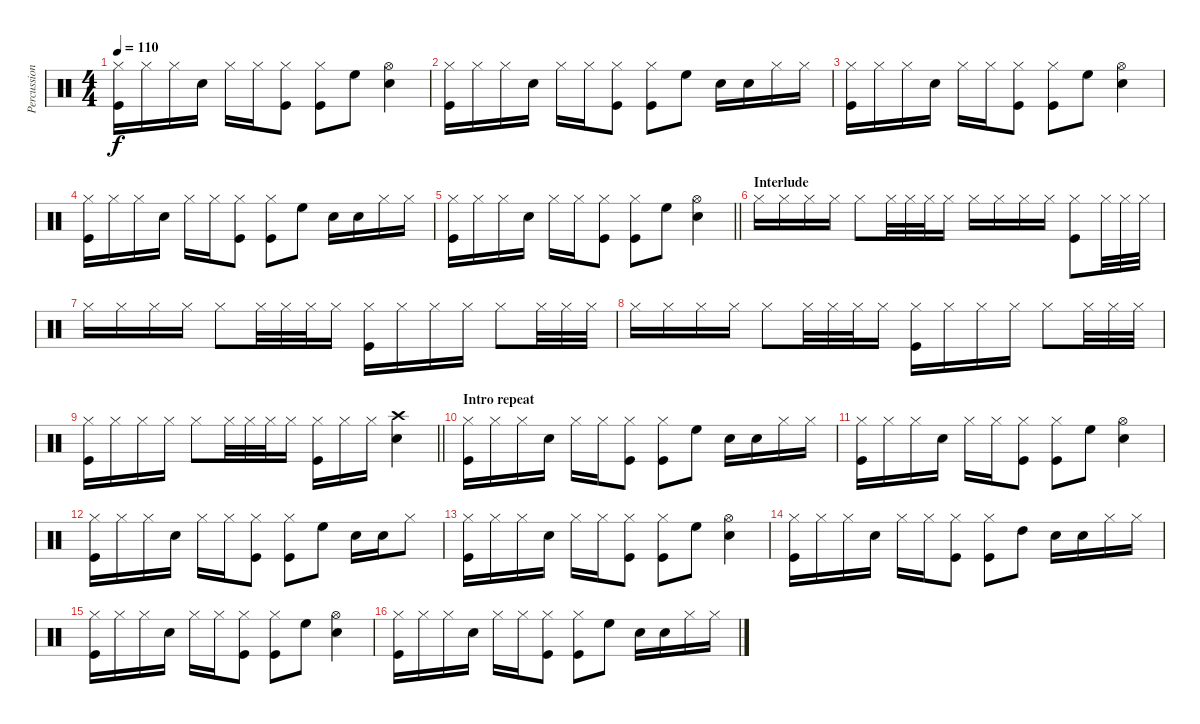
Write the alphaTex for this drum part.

\track ("Percussion" "Percussion") {instrument percussion}
\staff {score}
\articulation defaults
\ts (4 4)
\tempo 110
\clef neutral
\ks c
("Kick (hit)" "Hi-Hat (closed)").16{dy f} "Hi-Hat (closed)".16 "Hi-Hat (closed)".16 "Snare (hit) 2".16 "Hi-Hat (closed)".16 "Hi-Hat (closed)".16 ("Kick (hit)" "Hi-Hat (closed)").8 ("Kick (hit)" "Hi-Hat (closed)").8 "High Floor Tom (hit)".8 ("Hi-Hat (open)" "Snare (hit) 2").4 |
("Kick (hit)" "Hi-Hat (closed)").16 "Hi-Hat (closed)".16 "Hi-Hat (closed)".16 "Snare (hit) 2".16 "Hi-Hat (closed)".16 "Hi-Hat (closed)".16 ("Kick (hit)" "Hi-Hat (closed)").8 ("Kick (hit)" "Hi-Hat (closed)").8 "High Floor Tom (hit)".8 "Snare (hit) 2".16 "Snare (hit) 2".16 "Hi-Hat (closed)".16 "Hi-Hat (closed)".16 |
("Kick (hit)" "Hi-Hat (closed)").16 "Hi-Hat (closed)".16 "Hi-Hat (closed)".16 "Snare (hit) 2".16 "Hi-Hat (closed)".16 "Hi-Hat (closed)".16 ("Kick (hit)" "Hi-Hat (closed)").8 ("Kick (hit)" "Hi-Hat (closed)").8 "High Floor Tom (hit)".8 ("Hi-Hat (open)" "Snare (hit) 2").4 |
("Kick (hit)" "Hi-Hat (closed)").16 "Hi-Hat (closed)".16 "Hi-Hat (closed)".16 "Snare (hit) 2".16 "Hi-Hat (closed)".16 "Hi-Hat (closed)".16 ("Kick (hit)" "Hi-Hat (closed)").8 ("Kick (hit)" "Hi-Hat (closed)").8 "High Floor Tom (hit)".8 "Snare (hit) 2".16 "Snare (hit) 2".16 "Hi-Hat (closed)".16 "Hi-Hat (closed)".16 |
\barLineRight lightlight
("Kick (hit)" "Hi-Hat (closed)").16 "Hi-Hat (closed)".16 "Hi-Hat (closed)".16 "Snare (hit) 2".16 "Hi-Hat (closed)".16 "Hi-Hat (closed)".16 ("Kick (hit)" "Hi-Hat (closed)").8 ("Kick (hit)" "Hi-Hat (closed)").8 "High Floor Tom (hit)".8 ("Hi-Hat (open)" "Snare (hit) 2").4 |
\section ("" "Interlude")
"Hi-Hat (closed)".16 "Hi-Hat (closed)".16 "Hi-Hat (closed)".16 "Hi-Hat (closed)".16 "Hi-Hat (closed)".8 "Hi-Hat (closed)".32 "Hi-Hat (closed)".32 "Hi-Hat (closed)".32 "Hi-Hat (closed)".16 "Hi-Hat (closed)".16 "Hi-Hat (closed)".16 "Hi-Hat (closed)".16 "Hi-Hat (closed)".16 ("Kick (hit)" "Hi-Hat (closed)").8 "Hi-Hat (closed)".32 "Hi-Hat (closed)".32 "Hi-Hat (closed)".32 |
"Hi-Hat (closed)".16 "Hi-Hat (closed)".16 "Hi-Hat (closed)".16 "Hi-Hat (closed)".16 "Hi-Hat (closed)".8 "Hi-Hat (closed)".32 "Hi-Hat (closed)".32 "Hi-Hat (closed)".32 "Hi-Hat (closed)".16 ("Kick (hit)" "Hi-Hat (closed)").16 "Hi-Hat (closed)".16 "Hi-Hat (closed)".16 "Hi-Hat (closed)".16 "Hi-Hat (closed)".8 "Hi-Hat (closed)".32 "Hi-Hat (closed)".32 "Hi-Hat (closed)".32 |
"Hi-Hat (closed)".16 "Hi-Hat (closed)".16 "Hi-Hat (closed)".16 "Hi-Hat (closed)".16 "Hi-Hat (closed)".8 "Hi-Hat (closed)".32 "Hi-Hat (closed)".32 "Hi-Hat (closed)".32 "Hi-Hat (closed)".16 ("Kick (hit)" "Hi-Hat (closed)").16 "Hi-Hat (closed)".16 "Hi-Hat (closed)".16 "Hi-Hat (closed)".16 "Hi-Hat (closed)".8 "Hi-Hat (closed)".32 "Hi-Hat (closed)".32 "Hi-Hat (closed)".32 |
\barLineRight lightlight
("Kick (hit)" "Hi-Hat (closed)").16 "Hi-Hat (closed)".16 "Hi-Hat (closed)".16 "Hi-Hat (closed)".16 "Hi-Hat (closed)".8 "Hi-Hat (closed)".32 "Hi-Hat (closed)".32 "Hi-Hat (closed)".32 "Hi-Hat (closed)".16 ("Kick (hit)" "Hi-Hat (closed)").16 "Hi-Hat (closed)".16 "Hi-Hat (closed)".16 ("Crash high (hit)" "Snare (hit) 2").4 |
\section ("" "Intro repeat")
("Kick (hit)" "Hi-Hat (closed)").16 "Hi-Hat (closed)".16 "Hi-Hat (closed)".16 "Snare (hit) 2".16 "Hi-Hat (closed)".16 "Hi-Hat (closed)".16 ("Kick (hit)" "Hi-Hat (closed)").8 ("Kick (hit)" "Hi-Hat (closed)").8 "High Floor Tom (hit)".8 "Snare (hit) 2".16 "Snare (hit) 2".16 "Hi-Hat (closed)".16 "Hi-Hat (closed)".16 |
("Kick (hit)" "Hi-Hat (closed)").16 "Hi-Hat (closed)".16 "Hi-Hat (closed)".16 "Snare (hit) 2".16 "Hi-Hat (closed)".16 "Hi-Hat (closed)".16 ("Kick (hit)" "Hi-Hat (closed)").8 ("Kick (hit)" "Hi-Hat (closed)").8 "High Floor Tom (hit)".8 ("Hi-Hat (open)" "Snare (hit) 2").4 |
("Kick (hit)" "Hi-Hat (closed)").16 "Hi-Hat (closed)".16 "Hi-Hat (closed)".16 "Snare (hit) 2".16 "Hi-Hat (closed)".16 "Hi-Hat (closed)".16 ("Kick (hit)" "Hi-Hat (closed)").8 ("Kick (hit)" "Hi-Hat (closed)").8 "High Floor Tom (hit)".8 "Snare (hit) 2".16 "Snare (hit) 2".16 "Hi-Hat (closed)".8 |
("Kick (hit)" "Hi-Hat (closed)").16 "Hi-Hat (closed)".16 "Hi-Hat (closed)".16 "Snare (hit) 2".16 "Hi-Hat (closed)".16 "Hi-Hat (closed)".16 ("Kick (hit)" "Hi-Hat (closed)").8 ("Kick (hit)" "Hi-Hat (closed)").8 "High Floor Tom (hit)".8 ("Hi-Hat (open)" "Snare (hit) 2").4 |
("Kick (hit)" "Hi-Hat (closed)").16 "Hi-Hat (closed)".16 "Hi-Hat (closed)".16 "Snare (hit) 2".16 "Hi-Hat (closed)".16 "Hi-Hat (closed)".16 ("Kick (hit)" "Hi-Hat (closed)").8 ("Kick (hit)" "Hi-Hat (closed)").8 "High Tom (hit)".8 "Snare (hit) 2".16 "Snare (hit) 2".16 "Hi-Hat (closed)".16 "Hi-Hat (closed)".16 |
("Kick (hit)" "Hi-Hat (closed)").16 "Hi-Hat (closed)".16 "Hi-Hat (closed)".16 "Snare (hit) 2".16 "Hi-Hat (closed)".16 "Hi-Hat (closed)".16 ("Kick (hit)" "Hi-Hat (closed)").8 ("Kick (hit)" "Hi-Hat (closed)").8 "High Floor Tom (hit)".8 ("Hi-Hat (open)" "Snare (hit) 2").4 |
("Kick (hit)" "Hi-Hat (closed)").16 "Hi-Hat (closed)".16 "Hi-Hat (closed)".16 "Snare (hit) 2".16 "Hi-Hat (closed)".16 "Hi-Hat (closed)".16 ("Kick (hit)" "Hi-Hat (closed)").8 ("Kick (hit)" "Hi-Hat (closed)").8 "High Floor Tom (hit)".8 "Snare (hit) 2".16 "Snare (hit) 2".16 "Hi-Hat (closed)".16 "Hi-Hat (closed)".16
